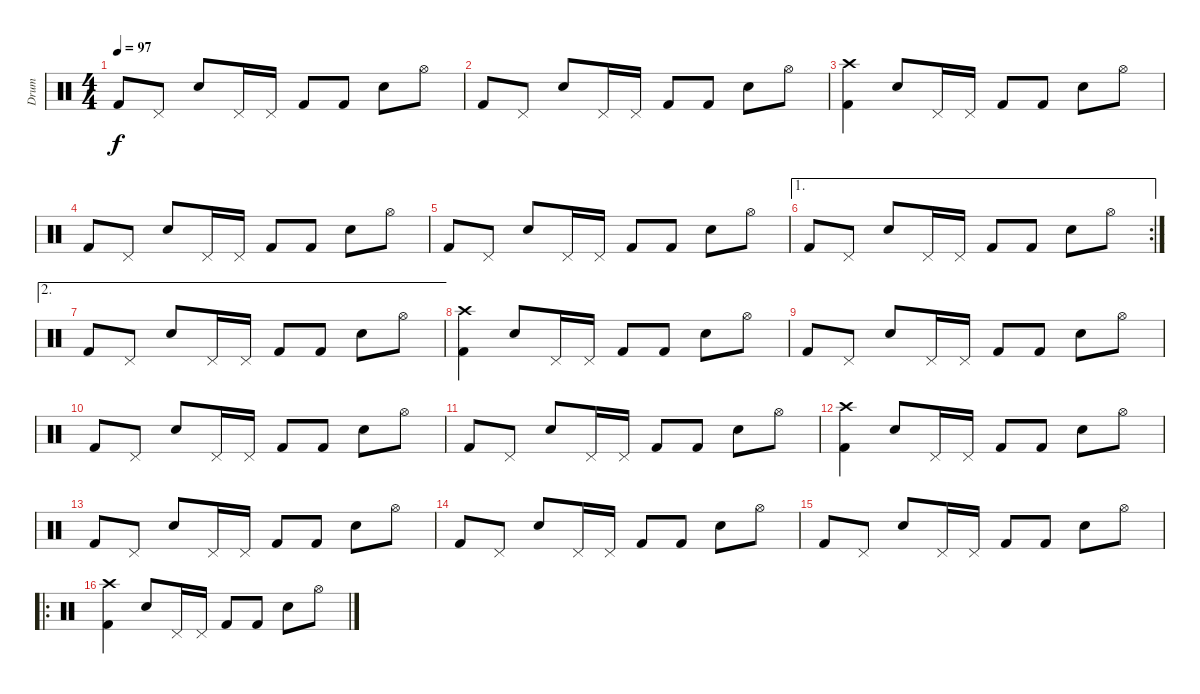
\track ("Drum" "Drum") {instrument percussion}
\staff {score}
\articulation defaults
\ts (4 4)
\tempo 97
\clef neutral
\ks c "Kick (hit) 2".8{dy f} "Pedal Hi-Hat (hit)".8 "Electric Snare (hit)".8 "Pedal Hi-Hat (hit)".16 "Pedal Hi-Hat (hit)".16 "Kick (hit) 2".8 "Kick (hit) 2".8 "Electric Snare (hit)".8 "Hi-Hat (open)".8
|
"Kick (hit) 2".8 "Pedal Hi-Hat (hit)".8 "Electric Snare (hit)".8 "Pedal Hi-Hat (hit)".16 "Pedal Hi-Hat (hit)".16 "Kick (hit) 2".8 "Kick (hit) 2".8 "Electric Snare (hit)".8 "Hi-Hat (open)".8 |
("Crash high (hit)" "Kick (hit) 2").4 "Electric Snare (hit)".8 "Pedal Hi-Hat (hit)".16 "Pedal Hi-Hat (hit)".16 "Kick (hit) 2".8 "Kick (hit) 2".8 "Electric Snare (hit)".8 "Hi-Hat (open)".8 |
"Kick (hit) 2".8 "Pedal Hi-Hat (hit)".8 "Electric Snare (hit)".8 "Pedal Hi-Hat (hit)".16 "Pedal Hi-Hat (hit)".16 "Kick (hit) 2".8 "Kick (hit) 2".8 "Electric Snare (hit)".8 "Hi-Hat (open)".8 |
"Kick (hit) 2".8 "Pedal Hi-Hat (hit)".8 "Electric Snare (hit)".8 "Pedal Hi-Hat (hit)".16 "Pedal Hi-Hat (hit)".16 "Kick (hit) 2".8 "Kick (hit) 2".8 "Electric Snare (hit)".8 "Hi-Hat (open)".8 |
\ae 1
\rc 2 "Kick (hit) 2".8 "Pedal Hi-Hat (hit)".8 "Electric Snare (hit)".8 "Pedal Hi-Hat (hit)".16 "Pedal Hi-Hat (hit)".16 "Kick (hit) 2".8 "Kick (hit) 2".8 "Electric Snare (hit)".8 "Hi-Hat (open)".8
|
\ae 2 "Kick (hit) 2".8 "Pedal Hi-Hat (hit)".8 "Electric Snare (hit)".8 "Pedal Hi-Hat (hit)".16 "Pedal Hi-Hat (hit)".16 "Kick (hit) 2".8 "Kick (hit) 2".8 "Electric Snare (hit)".8 "Hi-Hat (open)".8
|
("Crash high (hit)" "Kick (hit) 2").4 "Electric Snare (hit)".8 "Pedal Hi-Hat (hit)".16 "Pedal Hi-Hat (hit)".16 "Kick (hit) 2".8 "Kick (hit) 2".8 "Electric Snare (hit)".8 "Hi-Hat (open)".8 |
"Kick (hit) 2".8 "Pedal Hi-Hat (hit)".8 "Electric Snare (hit)".8 "Pedal Hi-Hat (hit)".16 "Pedal Hi-Hat (hit)".16 "Kick (hit) 2".8 "Kick (hit) 2".8 "Electric Snare (hit)".8 "Hi-Hat (open)".8 |
"Kick (hit) 2".8 "Pedal Hi-Hat (hit)".8 "Electric Snare (hit)".8 "Pedal Hi-Hat (hit)".16 "Pedal Hi-Hat (hit)".16 "Kick (hit) 2".8 "Kick (hit) 2".8 "Electric Snare (hit)".8 "Hi-Hat (open)".8 |
"Kick (hit) 2".8 "Pedal Hi-Hat (hit)".8 "Electric Snare (hit)".8 "Pedal Hi-Hat (hit)".16 "Pedal Hi-Hat (hit)".16 "Kick (hit) 2".8 "Kick (hit) 2".8 "Electric Snare (hit)".8 "Hi-Hat (open)".8 |
("Crash high (hit)" "Kick (hit) 2").4 "Electric Snare (hit)".8 "Pedal Hi-Hat (hit)".16 "Pedal Hi-Hat (hit)".16 "Kick (hit) 2".8 "Kick (hit) 2".8 "Electric Snare (hit)".8 "Hi-Hat (open)".8 |
"Kick (hit) 2".8 "Pedal Hi-Hat (hit)".8 "Electric Snare (hit)".8 "Pedal Hi-Hat (hit)".16 "Pedal Hi-Hat (hit)".16 "Kick (hit) 2".8 "Kick (hit) 2".8 "Electric Snare (hit)".8 "Hi-Hat (open)".8 |
"Kick (hit) 2".8 "Pedal Hi-Hat (hit)".8 "Electric Snare (hit)".8 "Pedal Hi-Hat (hit)".16 "Pedal Hi-Hat (hit)".16 "Kick (hit) 2".8 "Kick (hit) 2".8 "Electric Snare (hit)".8 "Hi-Hat (open)".8 |
"Kick (hit) 2".8 "Pedal Hi-Hat (hit)".8 "Electric Snare (hit)".8 "Pedal Hi-Hat (hit)".16 "Pedal Hi-Hat (hit)".16 "Kick (hit) 2".8 "Kick (hit) 2".8 "Electric Snare (hit)".8 "Hi-Hat (open)".8 |
\ro
("Crash high (hit)" "Kick (hit) 2").4 "Electric Snare (hit)".8 "Pedal Hi-Hat (hit)".16 "Pedal Hi-Hat (hit)".16 "Kick (hit) 2".8 "Kick (hit) 2".8 "Electric Snare (hit)".8 "Hi-Hat (open)".8
